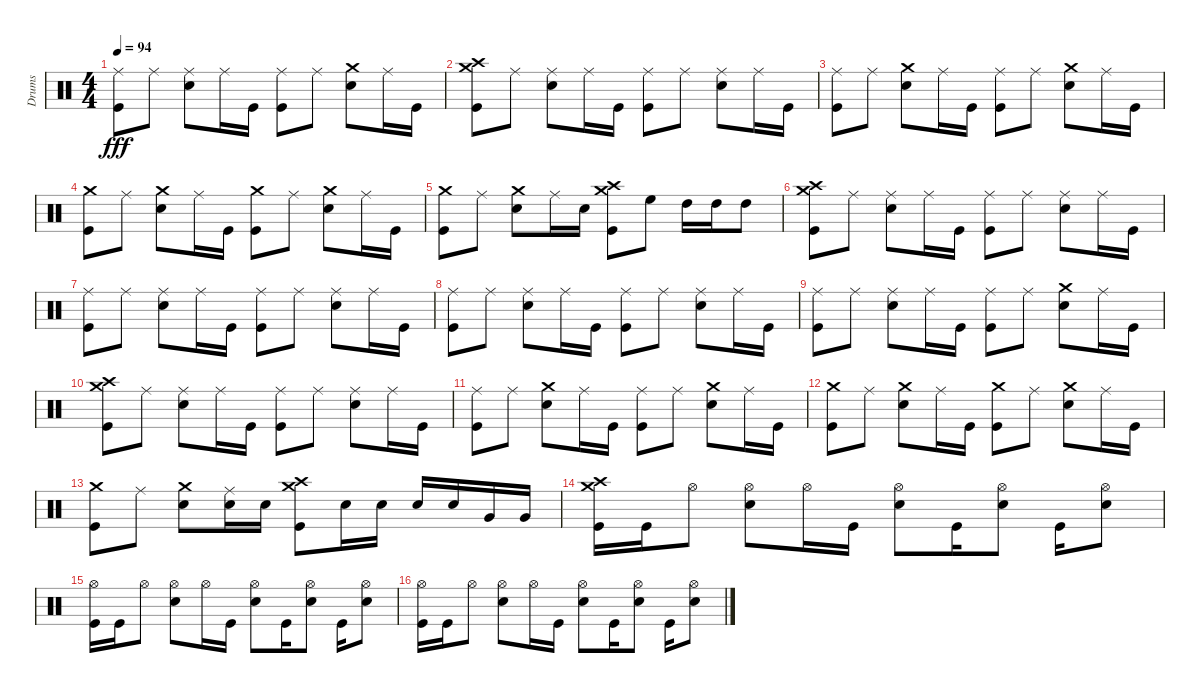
\track ("Drums" "Drums") {instrument percussion}
\staff {score}
\articulation defaults
\ts (4 4)
\tempo 94
\clef neutral
\ks c
("Ride (middle)" "Kick (hit)").8{dy fff} "Ride (middle)".8 ("Ride (middle)" "Snare (hit) 2").8 "Ride (middle)".16 "Kick (hit)".16 ("Ride (middle)" "Kick (hit)").8 "Ride (middle)".8 ("Crash medium (hit)" "Snare (hit) 2").8 "Ride (middle)".16 "Kick (hit)".16 |
("Crash high (hit)" "Crash medium (hit)" "Kick (hit)").8 "Ride (middle)".8 ("Ride (middle)" "Snare (hit) 2").8 "Ride (middle)".16 "Kick (hit)".16 ("Ride (middle)" "Kick (hit)").8 "Ride (middle)".8 ("Ride (middle)" "Snare (hit) 2").8 "Ride (middle)".16 "Kick (hit)".16 |
("Ride (middle)" "Kick (hit)").8 "Ride (middle)".8 ("Crash medium (hit)" "Snare (hit) 2").8 "Ride (middle)".16 "Kick (hit)".16 ("Ride (middle)" "Kick (hit)").8 "Ride (middle)".8 ("Crash medium (hit)" "Snare (hit) 2").8 "Ride (middle)".16 "Kick (hit)".16 |
("Crash medium (hit)" "Kick (hit)").8 "Ride (middle)".8 ("Crash medium (hit)" "Snare (hit) 2").8 "Ride (middle)".16 "Kick (hit)".16 ("Crash medium (hit)" "Kick (hit)").8 "Ride (middle)".8 ("Crash medium (hit)" "Snare (hit) 2").8 "Ride (middle)".16 "Kick (hit)".16 |
("Crash medium (hit)" "Kick (hit)").8 "Ride (middle)".8 ("Crash medium (hit)" "Snare (hit) 2").8 "Ride (middle)".16 "Snare (hit) 2".16 ("Crash high (hit)" "Crash medium (hit)" "Kick (hit)").8 "High Floor Tom (hit)".8 "High Tom (hit)".16 "High Tom (hit)".16 "High Tom (hit)".8 |
("Crash high (hit)" "Crash medium (hit)" "Kick (hit)").8 "Ride (middle)".8 ("Ride (middle)" "Snare (hit) 2").8 "Ride (middle)".16 "Kick (hit)".16 ("Ride (middle)" "Kick (hit)").8 "Ride (middle)".8 ("Ride (middle)" "Snare (hit) 2").8 "Ride (middle)".16 "Kick (hit)".16 |
("Ride (middle)" "Kick (hit)").8 "Ride (middle)".8 ("Ride (middle)" "Snare (hit) 2").8 "Ride (middle)".16 "Kick (hit)".16 ("Ride (middle)" "Kick (hit)").8 "Ride (middle)".8 ("Ride (middle)" "Snare (hit) 2").8 "Ride (middle)".16 "Kick (hit)".16 |
("Ride (middle)" "Kick (hit)").8 "Ride (middle)".8 ("Ride (middle)" "Snare (hit) 2").8 "Ride (middle)".16 "Kick (hit)".16 ("Ride (middle)" "Kick (hit)").8 "Ride (middle)".8 ("Ride (middle)" "Snare (hit) 2").8 "Ride (middle)".16 "Kick (hit)".16 |
("Ride (middle)" "Kick (hit)").8 "Ride (middle)".8 ("Ride (middle)" "Snare (hit) 2").8 "Ride (middle)".16 "Kick (hit)".16 ("Ride (middle)" "Kick (hit)").8 "Ride (middle)".8 ("Crash medium (hit)" "Snare (hit) 2").8 "Ride (middle)".16 "Kick (hit)".16 |
("Crash high (hit)" "Crash medium (hit)" "Kick (hit)").8 "Ride (middle)".8 ("Ride (middle)" "Snare (hit) 2").8 "Ride (middle)".16 "Kick (hit)".16 ("Ride (middle)" "Kick (hit)").8 "Ride (middle)".8 ("Ride (middle)" "Snare (hit) 2").8 "Ride (middle)".16 "Kick (hit)".16 |
("Ride (middle)" "Kick (hit)").8 "Ride (middle)".8 ("Crash medium (hit)" "Snare (hit) 2").8 "Ride (middle)".16 "Kick (hit)".16 ("Ride (middle)" "Kick (hit)").8 "Ride (middle)".8 ("Crash medium (hit)" "Snare (hit) 2").8 "Ride (middle)".16 "Kick (hit)".16 |
("Crash medium (hit)" "Kick (hit)").8 "Ride (middle)".8 ("Crash medium (hit)" "Snare (hit) 2").8 "Ride (middle)".16 "Kick (hit)".16 ("Crash medium (hit)" "Kick (hit)").8 "Ride (middle)".8 ("Crash medium (hit)" "Snare (hit) 2").8 "Ride (middle)".16 "Kick (hit)".16 |
("Crash medium (hit)" "Kick (hit)").8 "Ride (middle)".8 ("Crash medium (hit)" "Snare (hit) 2").8 ("Ride (middle)" "Snare (hit) 2").16 "Snare (hit) 2".16 ("Crash high (hit)" "Crash medium (hit)" "Kick (hit)").8 "Snare (hit) 2".16 "Snare (hit) 2".16 "Snare (hit) 2".16 "Snare (hit) 2".16 "Very Low Tom (hit)".16 "Very Low Tom (hit)".16 |
("Crash high (hit)" "Crash medium (hit)" "Kick (hit)").16 "Kick (hit)".16 "Hi-Hat (open)".8 ("Hi-Hat (open)" "Snare (hit) 2").8 "Hi-Hat (open)".16 "Kick (hit)".16 ("Hi-Hat (open)" "Snare (hit) 2").8 "Kick (hit)".16 ("Hi-Hat (open)" "Snare (hit) 2").8 "Kick (hit)".16 ("Hi-Hat (open)" "Snare (hit) 2").8 |
("Hi-Hat (open)" "Kick (hit)").16 "Kick (hit)".16 "Hi-Hat (open)".8 ("Hi-Hat (open)" "Snare (hit) 2").8 "Hi-Hat (open)".16 "Kick (hit)".16 ("Hi-Hat (open)" "Snare (hit) 2").8 "Kick (hit)".16 ("Hi-Hat (open)" "Snare (hit) 2").8 "Kick (hit)".16 ("Hi-Hat (open)" "Snare (hit) 2").8 |
("Hi-Hat (open)" "Kick (hit)").16 "Kick (hit)".16 "Hi-Hat (open)".8 ("Hi-Hat (open)" "Snare (hit) 2").8 "Hi-Hat (open)".16 "Kick (hit)".16 ("Hi-Hat (open)" "Snare (hit) 2").8 "Kick (hit)".16 ("Hi-Hat (open)" "Snare (hit) 2").8 "Kick (hit)".16 ("Hi-Hat (open)" "Snare (hit) 2").8
